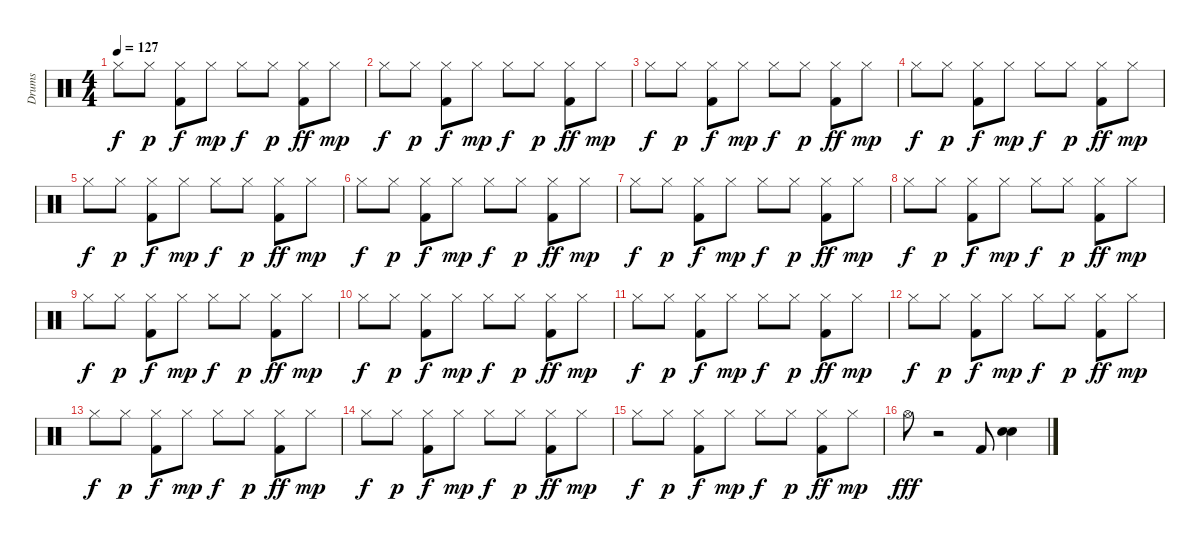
\track ("Drums" "Drums") {instrument percussion}
\staff {score}
\articulation defaults
\ts (4 4)
\tempo 127
\clef neutral
\ks c "Hi-Hat (closed)".8{dy f} "Hi-Hat (closed)".8{dy p}
("Hi-Hat (closed)" "Kick (hit) 2").8{dy f} "Hi-Hat (closed)".8{dy mp} "Hi-Hat (closed)".8{dy f} "Hi-Hat (closed)".8{dy p} ("Hi-Hat (closed)" "Kick (hit) 2").8{dy ff} "Hi-Hat (closed)".8{dy mp} |
"Hi-Hat (closed)".8{dy f} "Hi-Hat (closed)".8{dy p} ("Hi-Hat (closed)" "Kick (hit) 2").8{dy f} "Hi-Hat (closed)".8{dy mp} "Hi-Hat (closed)".8{dy f} "Hi-Hat (closed)".8{dy p} ("Hi-Hat (closed)" "Kick (hit) 2").8{dy ff} "Hi-Hat (closed)".8{dy mp} |
"Hi-Hat (closed)".8{dy f} "Hi-Hat (closed)".8{dy p} ("Hi-Hat (closed)" "Kick (hit) 2").8{dy f} "Hi-Hat (closed)".8{dy mp} "Hi-Hat (closed)".8{dy f} "Hi-Hat (closed)".8{dy p} ("Hi-Hat (closed)" "Kick (hit) 2").8{dy ff} "Hi-Hat (closed)".8{dy mp} |
"Hi-Hat (closed)".8{dy f} "Hi-Hat (closed)".8{dy p} ("Hi-Hat (closed)" "Kick (hit) 2").8{dy f} "Hi-Hat (closed)".8{dy mp} "Hi-Hat (closed)".8{dy f} "Hi-Hat (closed)".8{dy p} ("Hi-Hat (closed)" "Kick (hit) 2").8{dy ff} "Hi-Hat (closed)".8{dy mp} |
"Hi-Hat (closed)".8{dy f} "Hi-Hat (closed)".8{dy p} ("Hi-Hat (closed)" "Kick (hit) 2").8{dy f} "Hi-Hat (closed)".8{dy mp} "Hi-Hat (closed)".8{dy f} "Hi-Hat (closed)".8{dy p} ("Hi-Hat (closed)" "Kick (hit) 2").8{dy ff} "Hi-Hat (closed)".8{dy mp} |
"Hi-Hat (closed)".8{dy f} "Hi-Hat (closed)".8{dy p} ("Hi-Hat (closed)" "Kick (hit) 2").8{dy f} "Hi-Hat (closed)".8{dy mp} "Hi-Hat (closed)".8{dy f} "Hi-Hat (closed)".8{dy p} ("Hi-Hat (closed)" "Kick (hit) 2").8{dy ff} "Hi-Hat (closed)".8{dy mp} |
"Hi-Hat (closed)".8{dy f} "Hi-Hat (closed)".8{dy p} ("Hi-Hat (closed)" "Kick (hit) 2").8{dy f} "Hi-Hat (closed)".8{dy mp} "Hi-Hat (closed)".8{dy f} "Hi-Hat (closed)".8{dy p} ("Hi-Hat (closed)" "Kick (hit) 2").8{dy ff} "Hi-Hat (closed)".8{dy mp} |
"Hi-Hat (closed)".8{dy f} "Hi-Hat (closed)".8{dy p} ("Hi-Hat (closed)" "Kick (hit) 2").8{dy f} "Hi-Hat (closed)".8{dy mp} "Hi-Hat (closed)".8{dy f} "Hi-Hat (closed)".8{dy p} ("Hi-Hat (closed)" "Kick (hit) 2").8{dy ff} "Hi-Hat (closed)".8{dy mp} |
"Hi-Hat (closed)".8{dy f} "Hi-Hat (closed)".8{dy p} ("Hi-Hat (closed)" "Kick (hit) 2").8{dy f} "Hi-Hat (closed)".8{dy mp} "Hi-Hat (closed)".8{dy f} "Hi-Hat (closed)".8{dy p} ("Hi-Hat (closed)" "Kick (hit) 2").8{dy ff} "Hi-Hat (closed)".8{dy mp} |
"Hi-Hat (closed)".8{dy f} "Hi-Hat (closed)".8{dy p} ("Hi-Hat (closed)" "Kick (hit) 2").8{dy f} "Hi-Hat (closed)".8{dy mp} "Hi-Hat (closed)".8{dy f} "Hi-Hat (closed)".8{dy p} ("Hi-Hat (closed)" "Kick (hit) 2").8{dy ff} "Hi-Hat (closed)".8{dy mp} |
"Hi-Hat (closed)".8{dy f} "Hi-Hat (closed)".8{dy p} ("Hi-Hat (closed)" "Kick (hit) 2").8{dy f} "Hi-Hat (closed)".8{dy mp} "Hi-Hat (closed)".8{dy f} "Hi-Hat (closed)".8{dy p} ("Hi-Hat (closed)" "Kick (hit) 2").8{dy ff} "Hi-Hat (closed)".8{dy mp} |
"Hi-Hat (closed)".8{dy f} "Hi-Hat (closed)".8{dy p} ("Hi-Hat (closed)" "Kick (hit) 2").8{dy f} "Hi-Hat (closed)".8{dy mp} "Hi-Hat (closed)".8{dy f} "Hi-Hat (closed)".8{dy p} ("Hi-Hat (closed)" "Kick (hit) 2").8{dy ff} "Hi-Hat (closed)".8{dy mp} |
"Hi-Hat (closed)".8{dy f} "Hi-Hat (closed)".8{dy p} ("Hi-Hat (closed)" "Kick (hit) 2").8{dy f} "Hi-Hat (closed)".8{dy mp} "Hi-Hat (closed)".8{dy f} "Hi-Hat (closed)".8{dy p} ("Hi-Hat (closed)" "Kick (hit) 2").8{dy ff} "Hi-Hat (closed)".8{dy mp} |
"Hi-Hat (closed)".8{dy f} "Hi-Hat (closed)".8{dy p} ("Hi-Hat (closed)" "Kick (hit) 2").8{dy f} "Hi-Hat (closed)".8{dy mp} "Hi-Hat (closed)".8{dy f} "Hi-Hat (closed)".8{dy p} ("Hi-Hat (closed)" "Kick (hit) 2").8{dy ff} "Hi-Hat (closed)".8{dy mp} |
"Hi-Hat (closed)".8{dy f} "Hi-Hat (closed)".8{dy p} ("Hi-Hat (closed)" "Kick (hit) 2").8{dy f} "Hi-Hat (closed)".8{dy mp} "Hi-Hat (closed)".8{dy f} "Hi-Hat (closed)".8{dy p} ("Hi-Hat (closed)" "Kick (hit) 2").8{dy ff} "Hi-Hat (closed)".8{dy mp} |
"Hi-Hat (open)".8{dy fff} r.2 "Kick (hit) 2".8 ("Electric Snare (hit)" "Electric Snare (hit)").4
